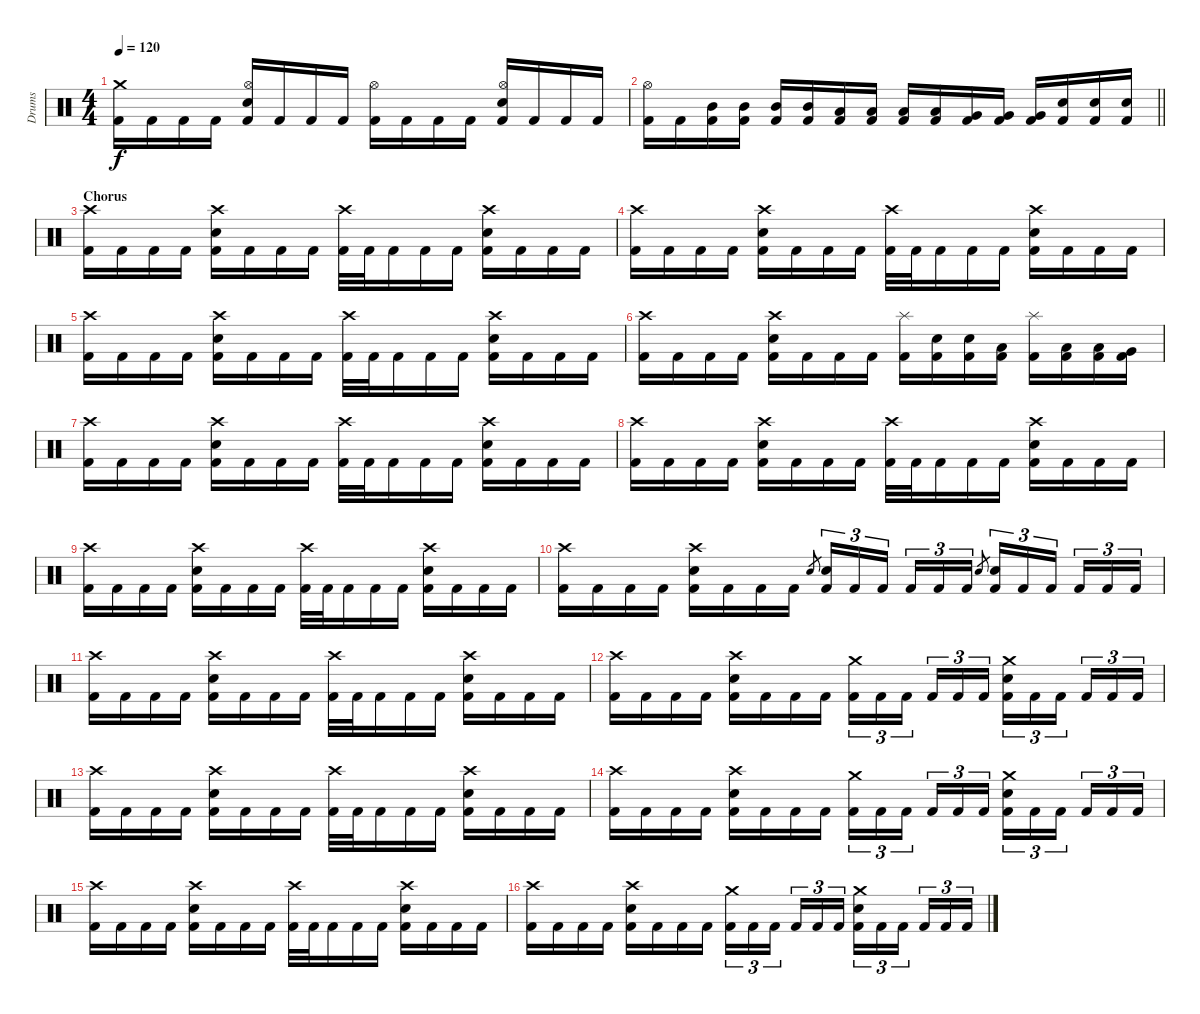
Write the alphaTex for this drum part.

\track ("Drums" "Drums") {instrument percussion}
\staff {score}
\articulation defaults
\ts (4 4)
\tempo 120
\clef neutral
\ks c
("Crash medium (hit)" "Kick (hit) 2").16{dy f} "Kick (hit) 2".16 "Kick (hit) 2".16 "Kick (hit) 2".16 ("Hi-Hat (open)" "Electric Snare (hit)" "Kick (hit) 2").16 "Kick (hit) 2".16 "Kick (hit) 2".16 "Kick (hit) 2".16 ("Hi-Hat (open)" "Kick (hit) 2").16 "Kick (hit) 2".16 "Kick (hit) 2".16 "Kick (hit) 2".16 ("Hi-Hat (open)" "Electric Snare (hit)" "Kick (hit) 2").16 "Kick (hit) 2".16 "Kick (hit) 2".16 "Kick (hit) 2".16 |
\barLineRight lightlight
("Hi-Hat (open)" "Kick (hit) 2").16 "Kick (hit) 2".16 ("Mid Tom (hit)" "Kick (hit) 2").16 ("Mid Tom (hit)" "Kick (hit) 2").16 ("Mid Tom (hit)" "Kick (hit) 2").16 ("Mid Tom (hit)" "Kick (hit) 2").16 ("Low Tom (hit)" "Kick (hit) 2").16 ("Low Tom (hit)" "Kick (hit) 2").16 ("Low Tom (hit)" "Kick (hit) 2").16 ("Low Tom (hit)" "Kick (hit) 2").16 ("Very Low Tom (hit)" "Kick (hit) 2").16 ("Very Low Tom (hit)" "Kick (hit) 2").16 ("Very Low Tom (hit)" "Kick (hit) 2").16 ("Electric Snare (hit)" "Kick (hit) 2").16 ("Electric Snare (hit)" "Kick (hit) 2").16 ("Electric Snare (hit)" "Kick (hit) 2").16 |
\section ("" "Chorus")
("Crash high (hit)" "Kick (hit) 2").16 "Kick (hit) 2".16 "Kick (hit) 2".16 "Kick (hit) 2".16 ("Crash high (hit)" "Electric Snare (hit)" "Kick (hit) 2").16 "Kick (hit) 2".16 "Kick (hit) 2".16 "Kick (hit) 2".16 ("Crash high (hit)" "Kick (hit) 2").32 "Kick (hit) 2".32 "Kick (hit) 2".16 "Kick (hit) 2".16 "Kick (hit) 2".16 ("Crash high (hit)" "Electric Snare (hit)" "Kick (hit) 2").16 "Kick (hit) 2".16 "Kick (hit) 2".16 "Kick (hit) 2".16 |
("Crash high (hit)" "Kick (hit) 2").16 "Kick (hit) 2".16 "Kick (hit) 2".16 "Kick (hit) 2".16 ("Crash high (hit)" "Electric Snare (hit)" "Kick (hit) 2").16 "Kick (hit) 2".16 "Kick (hit) 2".16 "Kick (hit) 2".16 ("Crash high (hit)" "Kick (hit) 2").32 "Kick (hit) 2".32 "Kick (hit) 2".16 "Kick (hit) 2".16 "Kick (hit) 2".16 ("Crash high (hit)" "Electric Snare (hit)" "Kick (hit) 2").16 "Kick (hit) 2".16 "Kick (hit) 2".16 "Kick (hit) 2".16 |
("Crash high (hit)" "Kick (hit) 2").16 "Kick (hit) 2".16 "Kick (hit) 2".16 "Kick (hit) 2".16 ("Crash high (hit)" "Electric Snare (hit)" "Kick (hit) 2").16 "Kick (hit) 2".16 "Kick (hit) 2".16 "Kick (hit) 2".16 ("Crash high (hit)" "Kick (hit) 2").32 "Kick (hit) 2".32 "Kick (hit) 2".16 "Kick (hit) 2".16 "Kick (hit) 2".16 ("Crash high (hit)" "Electric Snare (hit)" "Kick (hit) 2").16 "Kick (hit) 2".16 "Kick (hit) 2".16 "Kick (hit) 2".16 |
("Crash high (hit)" "Kick (hit) 2").16 "Kick (hit) 2".16 "Kick (hit) 2".16 "Kick (hit) 2".16 ("Crash high (hit)" "Electric Snare (hit)" "Kick (hit) 2").16 "Kick (hit) 2".16 "Kick (hit) 2".16 "Kick (hit) 2".16 ("Splash (hit)" "Kick (hit) 2").16 ("Electric Snare (hit)" "Kick (hit) 2").16 ("Electric Snare (hit)" "Kick (hit) 2").16 ("Low Tom (hit)" "Kick (hit) 2").16 ("Splash (hit)" "Kick (hit) 2").16 ("Low Tom (hit)" "Kick (hit) 2").16 ("Low Tom (hit)" "Kick (hit) 2").16 ("Very Low Tom (hit)" "Kick (hit) 2").16 |
("Crash high (hit)" "Kick (hit) 2").16 "Kick (hit) 2".16 "Kick (hit) 2".16 "Kick (hit) 2".16 ("Crash high (hit)" "Electric Snare (hit)" "Kick (hit) 2").16 "Kick (hit) 2".16 "Kick (hit) 2".16 "Kick (hit) 2".16 ("Crash high (hit)" "Kick (hit) 2").32 "Kick (hit) 2".32 "Kick (hit) 2".16 "Kick (hit) 2".16 "Kick (hit) 2".16 ("Crash high (hit)" "Electric Snare (hit)" "Kick (hit) 2").16 "Kick (hit) 2".16 "Kick (hit) 2".16 "Kick (hit) 2".16 |
("Crash high (hit)" "Kick (hit) 2").16 "Kick (hit) 2".16 "Kick (hit) 2".16 "Kick (hit) 2".16 ("Crash high (hit)" "Electric Snare (hit)" "Kick (hit) 2").16 "Kick (hit) 2".16 "Kick (hit) 2".16 "Kick (hit) 2".16 ("Crash high (hit)" "Kick (hit) 2").32 "Kick (hit) 2".32 "Kick (hit) 2".16 "Kick (hit) 2".16 "Kick (hit) 2".16 ("Crash high (hit)" "Electric Snare (hit)" "Kick (hit) 2").16 "Kick (hit) 2".16 "Kick (hit) 2".16 "Kick (hit) 2".16 |
("Crash high (hit)" "Kick (hit) 2").16 "Kick (hit) 2".16 "Kick (hit) 2".16 "Kick (hit) 2".16 ("Crash high (hit)" "Electric Snare (hit)" "Kick (hit) 2").16 "Kick (hit) 2".16 "Kick (hit) 2".16 "Kick (hit) 2".16 ("Crash high (hit)" "Kick (hit) 2").32 "Kick (hit) 2".32 "Kick (hit) 2".16 "Kick (hit) 2".16 "Kick (hit) 2".16 ("Crash high (hit)" "Electric Snare (hit)" "Kick (hit) 2").16 "Kick (hit) 2".16 "Kick (hit) 2".16 "Kick (hit) 2".16 |
("Crash high (hit)" "Kick (hit) 2").16 "Kick (hit) 2".16 "Kick (hit) 2".16 "Kick (hit) 2".16 ("Crash high (hit)" "Electric Snare (hit)" "Kick (hit) 2").16 "Kick (hit) 2".16 "Kick (hit) 2".16 "Kick (hit) 2".16 "Electric Snare (hit)".8{gr} ("Electric Snare (hit)" "Kick (hit) 2").16{tu (3 2)} "Kick (hit) 2".16{tu (3 2)} "Kick (hit) 2".16{tu (3 2) beam splitsecondary} "Kick (hit) 2".16{tu (3 2)} "Kick (hit) 2".16{tu (3 2)} "Kick (hit) 2".16{tu (3 2)} "Electric Snare (hit)".8{gr} ("Electric Snare (hit)" "Kick (hit) 2").16{tu (3 2)} "Kick (hit) 2".16{tu (3 2)} "Kick (hit) 2".16{tu (3 2) beam splitsecondary} "Kick (hit) 2".16{tu (3 2)} "Kick (hit) 2".16{tu (3 2)} "Kick (hit) 2".16{tu (3 2)} |
("Crash high (hit)" "Kick (hit) 2").16 "Kick (hit) 2".16 "Kick (hit) 2".16 "Kick (hit) 2".16 ("Crash high (hit)" "Electric Snare (hit)" "Kick (hit) 2").16 "Kick (hit) 2".16 "Kick (hit) 2".16 "Kick (hit) 2".16 ("Crash high (hit)" "Kick (hit) 2").32 "Kick (hit) 2".32 "Kick (hit) 2".16 "Kick (hit) 2".16 "Kick (hit) 2".16 ("Crash high (hit)" "Electric Snare (hit)" "Kick (hit) 2").16 "Kick (hit) 2".16 "Kick (hit) 2".16 "Kick (hit) 2".16 |
("Crash high (hit)" "Kick (hit) 2").16 "Kick (hit) 2".16 "Kick (hit) 2".16 "Kick (hit) 2".16 ("Crash high (hit)" "Electric Snare (hit)" "Kick (hit) 2").16 "Kick (hit) 2".16 "Kick (hit) 2".16 "Kick (hit) 2".16 ("Crash medium (hit)" "Kick (hit) 2").16{tu (3 2)} "Kick (hit) 2".16{tu (3 2)} "Kick (hit) 2".16{tu (3 2) beam splitsecondary} "Kick (hit) 2".16{tu (3 2)} "Kick (hit) 2".16{tu (3 2)} "Kick (hit) 2".16{tu (3 2)} ("Crash medium (hit)" "Electric Snare (hit)" "Kick (hit) 2").16{tu (3 2)} "Kick (hit) 2".16{tu (3 2)} "Kick (hit) 2".16{tu (3 2) beam splitsecondary} "Kick (hit) 2".16{tu (3 2)} "Kick (hit) 2".16{tu (3 2)} "Kick (hit) 2".16{tu (3 2)} |
("Crash high (hit)" "Kick (hit) 2").16 "Kick (hit) 2".16 "Kick (hit) 2".16 "Kick (hit) 2".16 ("Crash high (hit)" "Electric Snare (hit)" "Kick (hit) 2").16 "Kick (hit) 2".16 "Kick (hit) 2".16 "Kick (hit) 2".16 ("Crash high (hit)" "Kick (hit) 2").32 "Kick (hit) 2".32 "Kick (hit) 2".16 "Kick (hit) 2".16 "Kick (hit) 2".16 ("Crash high (hit)" "Electric Snare (hit)" "Kick (hit) 2").16 "Kick (hit) 2".16 "Kick (hit) 2".16 "Kick (hit) 2".16 |
("Crash high (hit)" "Kick (hit) 2").16 "Kick (hit) 2".16 "Kick (hit) 2".16 "Kick (hit) 2".16 ("Crash high (hit)" "Electric Snare (hit)" "Kick (hit) 2").16 "Kick (hit) 2".16 "Kick (hit) 2".16 "Kick (hit) 2".16 ("Crash medium (hit)" "Kick (hit) 2").16{tu (3 2)} "Kick (hit) 2".16{tu (3 2)} "Kick (hit) 2".16{tu (3 2) beam splitsecondary} "Kick (hit) 2".16{tu (3 2)} "Kick (hit) 2".16{tu (3 2)} "Kick (hit) 2".16{tu (3 2)} ("Crash medium (hit)" "Electric Snare (hit)" "Kick (hit) 2").16{tu (3 2)} "Kick (hit) 2".16{tu (3 2)} "Kick (hit) 2".16{tu (3 2) beam splitsecondary} "Kick (hit) 2".16{tu (3 2)} "Kick (hit) 2".16{tu (3 2)} "Kick (hit) 2".16{tu (3 2)} |
("Crash high (hit)" "Kick (hit) 2").16 "Kick (hit) 2".16 "Kick (hit) 2".16 "Kick (hit) 2".16 ("Crash high (hit)" "Electric Snare (hit)" "Kick (hit) 2").16 "Kick (hit) 2".16 "Kick (hit) 2".16 "Kick (hit) 2".16 ("Crash high (hit)" "Kick (hit) 2").32 "Kick (hit) 2".32 "Kick (hit) 2".16 "Kick (hit) 2".16 "Kick (hit) 2".16 ("Crash high (hit)" "Electric Snare (hit)" "Kick (hit) 2").16 "Kick (hit) 2".16 "Kick (hit) 2".16 "Kick (hit) 2".16 |
("Crash high (hit)" "Kick (hit) 2").16 "Kick (hit) 2".16 "Kick (hit) 2".16 "Kick (hit) 2".16 ("Crash high (hit)" "Electric Snare (hit)" "Kick (hit) 2").16 "Kick (hit) 2".16 "Kick (hit) 2".16 "Kick (hit) 2".16 ("Crash medium (hit)" "Kick (hit) 2").16{tu (3 2)} "Kick (hit) 2".16{tu (3 2)} "Kick (hit) 2".16{tu (3 2) beam splitsecondary} "Kick (hit) 2".16{tu (3 2)} "Kick (hit) 2".16{tu (3 2)} "Kick (hit) 2".16{tu (3 2)} ("Crash medium (hit)" "Electric Snare (hit)" "Kick (hit) 2").16{tu (3 2)} "Kick (hit) 2".16{tu (3 2)} "Kick (hit) 2".16{tu (3 2) beam splitsecondary} "Kick (hit) 2".16{tu (3 2)} "Kick (hit) 2".16{tu (3 2)} "Kick (hit) 2".16{tu (3 2)}
